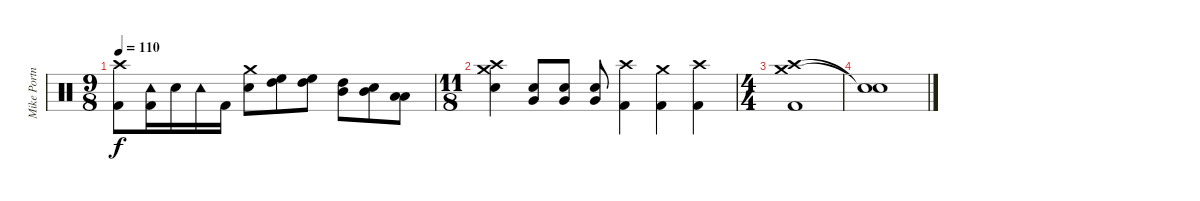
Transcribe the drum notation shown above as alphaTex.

\track ("Mike Portnoy" "Mike Portn") {instrument percussion}
\staff {score}
\articulation defaults
\ts (9 8)
\tempo 110
\clef neutral
\ks c
("Crash high (hit)" "Kick (hit) 2").8{dy f} ("Tambourine (hit)" "Kick (hit) 2").16 "Snare (hit) 2".16 "Tambourine (hit)".16 "Kick (hit) 2".16 ("Crash medium (hit)" "Snare (hit) 2").8 ("High Floor Tom (hit)" "High Tom (hit)").8 ("High Floor Tom (hit)" "High Tom (hit)").8 ("High Tom (hit)" "Mid Tom (hit)").8 ("Mid Tom (hit)" "Snare (hit) 2").8 ("Low Tom (hit)" "Low Floor Tom (hit)").8 |
\ts (11 8)
("Crash medium (hit)" "Crash high (hit)" "Snare (hit) 2").4 ("Very Low Tom (hit)" "Snare (hit) 2").8 ("Very Low Tom (hit)" "Snare (hit) 2").8 ("Very Low Tom (hit)" "Snare (hit) 2").8 ("Crash high (hit)" "Kick (hit) 2").4 ("Crash medium (hit)" "Kick (hit) 2").4 ("Crash high (hit)" "Kick (hit) 2").4 |
\ts (4 4)
("Crash medium (hit)" "Crash high (hit)" "Kick (hit) 2").1 |
("Snare (hit)"{t} "Snare (hit)"{t}).1
